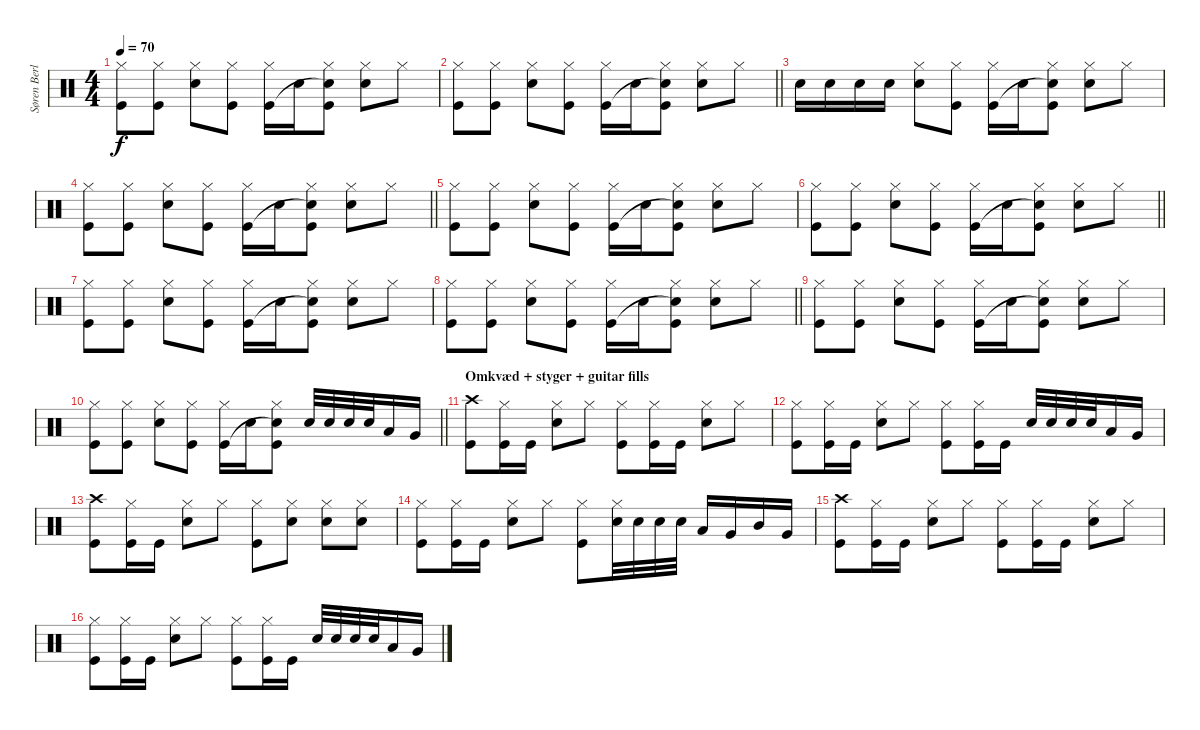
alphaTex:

\track ("Søren Berlev" "Søren Berl") {instrument percussion}
\staff {score}
\articulation defaults
\ts (4 4)
\tempo 70
\clef neutral
\ks c
("Hi-Hat (closed)" "Kick (hit)").8{dy f} ("Hi-Hat (closed)" "Kick (hit)").8 ("Hi-Hat (closed)" "Snare (hit) 2").8 ("Hi-Hat (closed)" "Kick (hit)").8 ("Hi-Hat (closed)" "Kick (hit)").16 "Snare (hit) 2".16 ("Hi-Hat (closed)" "Snare (hit)"{t} "Kick (hit)").8 ("Hi-Hat (closed)" "Snare (hit) 2").8 "Hi-Hat (closed)".8 |
\barLineRight lightlight
("Hi-Hat (closed)" "Kick (hit)").8 ("Hi-Hat (closed)" "Kick (hit)").8 ("Hi-Hat (closed)" "Snare (hit) 2").8 ("Hi-Hat (closed)" "Kick (hit)").8 ("Hi-Hat (closed)" "Kick (hit)").16 "Snare (hit) 2".16 ("Hi-Hat (closed)" "Snare (hit)"{t} "Kick (hit)").8 ("Hi-Hat (closed)" "Snare (hit) 2").8 "Hi-Hat (closed)".8 |
"Snare (hit) 2".16 "Snare (hit) 2".16 "Snare (hit) 2".16 "Snare (hit) 2".16 ("Hi-Hat (closed)" "Snare (hit) 2").8 ("Hi-Hat (closed)" "Kick (hit)").8 ("Hi-Hat (closed)" "Kick (hit)").16 "Snare (hit) 2".16 ("Hi-Hat (closed)" "Snare (hit)"{t} "Kick (hit)").8 ("Hi-Hat (closed)" "Snare (hit) 2").8 "Hi-Hat (closed)".8 |
\barLineRight lightlight
("Hi-Hat (closed)" "Kick (hit)").8 ("Hi-Hat (closed)" "Kick (hit)").8 ("Hi-Hat (closed)" "Snare (hit) 2").8 ("Hi-Hat (closed)" "Kick (hit)").8 ("Hi-Hat (closed)" "Kick (hit)").16 "Snare (hit) 2".16 ("Hi-Hat (closed)" "Snare (hit)"{t} "Kick (hit)").8 ("Hi-Hat (closed)" "Snare (hit) 2").8 "Hi-Hat (closed)".8 |
("Hi-Hat (closed)" "Kick (hit)").8 ("Hi-Hat (closed)" "Kick (hit)").8 ("Hi-Hat (closed)" "Snare (hit) 2").8 ("Hi-Hat (closed)" "Kick (hit)").8 ("Hi-Hat (closed)" "Kick (hit)").16 "Snare (hit) 2".16 ("Hi-Hat (closed)" "Snare (hit)"{t} "Kick (hit)").8 ("Hi-Hat (closed)" "Snare (hit) 2").8 "Hi-Hat (closed)".8 |
\barLineRight lightlight
("Hi-Hat (closed)" "Kick (hit)").8 ("Hi-Hat (closed)" "Kick (hit)").8 ("Hi-Hat (closed)" "Snare (hit) 2").8 ("Hi-Hat (closed)" "Kick (hit)").8 ("Hi-Hat (closed)" "Kick (hit)").16 "Snare (hit) 2".16 ("Hi-Hat (closed)" "Snare (hit)"{t} "Kick (hit)").8 ("Hi-Hat (closed)" "Snare (hit) 2").8 "Hi-Hat (closed)".8 |
("Hi-Hat (closed)" "Kick (hit)").8 ("Hi-Hat (closed)" "Kick (hit)").8 ("Hi-Hat (closed)" "Snare (hit) 2").8 ("Hi-Hat (closed)" "Kick (hit)").8 ("Hi-Hat (closed)" "Kick (hit)").16 "Snare (hit) 2".16 ("Hi-Hat (closed)" "Snare (hit)"{t} "Kick (hit)").8 ("Hi-Hat (closed)" "Snare (hit) 2").8 "Hi-Hat (closed)".8 |
\barLineRight lightlight
("Hi-Hat (closed)" "Kick (hit)").8 ("Hi-Hat (closed)" "Kick (hit)").8 ("Hi-Hat (closed)" "Snare (hit) 2").8 ("Hi-Hat (closed)" "Kick (hit)").8 ("Hi-Hat (closed)" "Kick (hit)").16 "Snare (hit) 2".16 ("Hi-Hat (closed)" "Snare (hit)"{t} "Kick (hit)").8 ("Hi-Hat (closed)" "Snare (hit) 2").8 "Hi-Hat (closed)".8 |
("Hi-Hat (closed)" "Kick (hit)").8 ("Hi-Hat (closed)" "Kick (hit)").8 ("Hi-Hat (closed)" "Snare (hit) 2").8 ("Hi-Hat (closed)" "Kick (hit)").8 ("Hi-Hat (closed)" "Kick (hit)").16 "Snare (hit) 2".16 ("Hi-Hat (closed)" "Snare (hit)"{t} "Kick (hit)").8 ("Hi-Hat (closed)" "Snare (hit) 2").8 "Hi-Hat (closed)".8 |
\barLineRight lightlight
("Hi-Hat (closed)" "Kick (hit)").8 ("Hi-Hat (closed)" "Kick (hit)").8 ("Hi-Hat (closed)" "Snare (hit) 2").8 ("Hi-Hat (closed)" "Kick (hit)").8 ("Hi-Hat (closed)" "Kick (hit)").16 "Snare (hit) 2".16 ("Hi-Hat (closed)" "Snare (hit)"{t} "Kick (hit)").8 "Snare (hit) 2".32 "Snare (hit) 2".32 "Snare (hit) 2".32 "Snare (hit) 2".32 "Low Tom (hit)".16 "Very Low Tom (hit)".16 |
\section ("" "Omkvæd + styger + guitar fills")
("Crash high (hit)" "Kick (hit)").8 ("Hi-Hat (closed)" "Kick (hit)").16 "Kick (hit)".16 ("Hi-Hat (closed)" "Snare (hit) 2").8 "Hi-Hat (closed)".8 ("Hi-Hat (closed)" "Kick (hit)").8 ("Hi-Hat (closed)" "Kick (hit)").16 "Kick (hit)".16 ("Hi-Hat (closed)" "Snare (hit) 2").8 "Hi-Hat (closed)".8 |
("Hi-Hat (closed)" "Kick (hit)").8 ("Hi-Hat (closed)" "Kick (hit)").16 "Kick (hit)".16 ("Hi-Hat (closed)" "Snare (hit) 2").8 "Hi-Hat (closed)".8 ("Hi-Hat (closed)" "Kick (hit)").8 ("Hi-Hat (closed)" "Kick (hit)").16 "Kick (hit)".16 "Snare (hit) 2".32 "Snare (hit) 2".32 "Snare (hit) 2".32 "Snare (hit) 2".32 "Low Tom (hit)".16 "Very Low Tom (hit)".16 |
("Crash high (hit)" "Kick (hit)").8 ("Hi-Hat (closed)" "Kick (hit)").16 "Kick (hit)".16 ("Hi-Hat (closed)" "Snare (hit) 2").8 "Hi-Hat (closed)".8 ("Hi-Hat (closed)" "Kick (hit)").8 ("Hi-Hat (closed)" "Snare (hit) 2").8 ("Hi-Hat (closed)" "Snare (hit) 2").8 ("Hi-Hat (closed)" "Snare (hit) 2").8 |
("Hi-Hat (closed)" "Kick (hit)").8 ("Hi-Hat (closed)" "Kick (hit)").16 "Kick (hit)".16 ("Hi-Hat (closed)" "Snare (hit) 2").8 "Hi-Hat (closed)".8 ("Hi-Hat (closed)" "Kick (hit)").8 ("Hi-Hat (closed)" "Snare (hit) 2").32 "Snare (hit) 2".32 "Snare (hit) 2".32 "Snare (hit) 2".32 "Low Tom (hit)".16 "Very Low Tom (hit)".16 "Mid Tom (hit)".16 "Very Low Tom (hit)".16 |
("Crash high (hit)" "Kick (hit)").8 ("Hi-Hat (closed)" "Kick (hit)").16 "Kick (hit)".16 ("Hi-Hat (closed)" "Snare (hit) 2").8 "Hi-Hat (closed)".8 ("Hi-Hat (closed)" "Kick (hit)").8 ("Hi-Hat (closed)" "Kick (hit)").16 "Kick (hit)".16 ("Hi-Hat (closed)" "Snare (hit) 2").8 "Hi-Hat (closed)".8 |
("Hi-Hat (closed)" "Kick (hit)").8 ("Hi-Hat (closed)" "Kick (hit)").16 "Kick (hit)".16 ("Hi-Hat (closed)" "Snare (hit) 2").8 "Hi-Hat (closed)".8 ("Hi-Hat (closed)" "Kick (hit)").8 ("Hi-Hat (closed)" "Kick (hit)").16 "Kick (hit)".16 "Snare (hit) 2".32 "Snare (hit) 2".32 "Snare (hit) 2".32 "Snare (hit) 2".32 "Low Tom (hit)".16 "Very Low Tom (hit)".16
